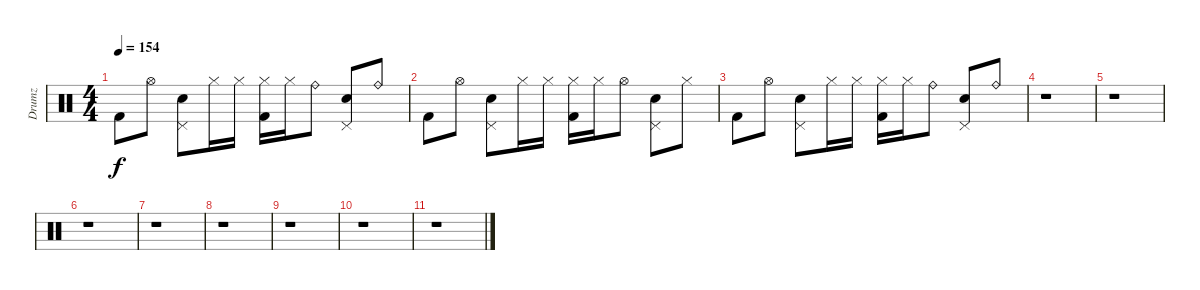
\track ("Drumz" "Drumz") {instrument percussion}
\staff {score}
\articulation defaults
\ts (4 4)
\tempo 154
\clef neutral
\ks c "Kick (hit) 2".8{dy f} "Hi-Hat (open)".8
("Pedal Hi-Hat (hit)" "Electric Snare (hit)").8 "Hi-Hat (closed)".16 "Hi-Hat (closed)".16 ("Hi-Hat (closed)" "Kick (hit) 2").16 "Hi-Hat (closed)".16 "Ride (bell)".8 ("Pedal Hi-Hat (hit)" "Electric Snare (hit)").8 "Ride (bell)".8 |
"Kick (hit) 2".8 "Hi-Hat (open)".8 ("Pedal Hi-Hat (hit)" "Electric Snare (hit)").8 "Hi-Hat (closed)".16 "Hi-Hat (closed)".16 ("Hi-Hat (closed)" "Kick (hit) 2").16 "Hi-Hat (closed)".16 "Hi-Hat (open)".8 ("Pedal Hi-Hat (hit)" "Electric Snare (hit)").8 "Hi-Hat (closed)".8 |
"Kick (hit) 2".8 "Hi-Hat (open)".8 ("Pedal Hi-Hat (hit)" "Electric Snare (hit)").8 "Hi-Hat (closed)".16 "Hi-Hat (closed)".16 ("Hi-Hat (closed)" "Kick (hit) 2").16 "Hi-Hat (closed)".16 "Ride (bell)".8 ("Pedal Hi-Hat (hit)" "Electric Snare (hit)").8 "Ride (bell)".8 |
r.1 |
r.1 |
r.1 |
r.1 |
r.1 |
r.1 |
r.1 |
r.1
